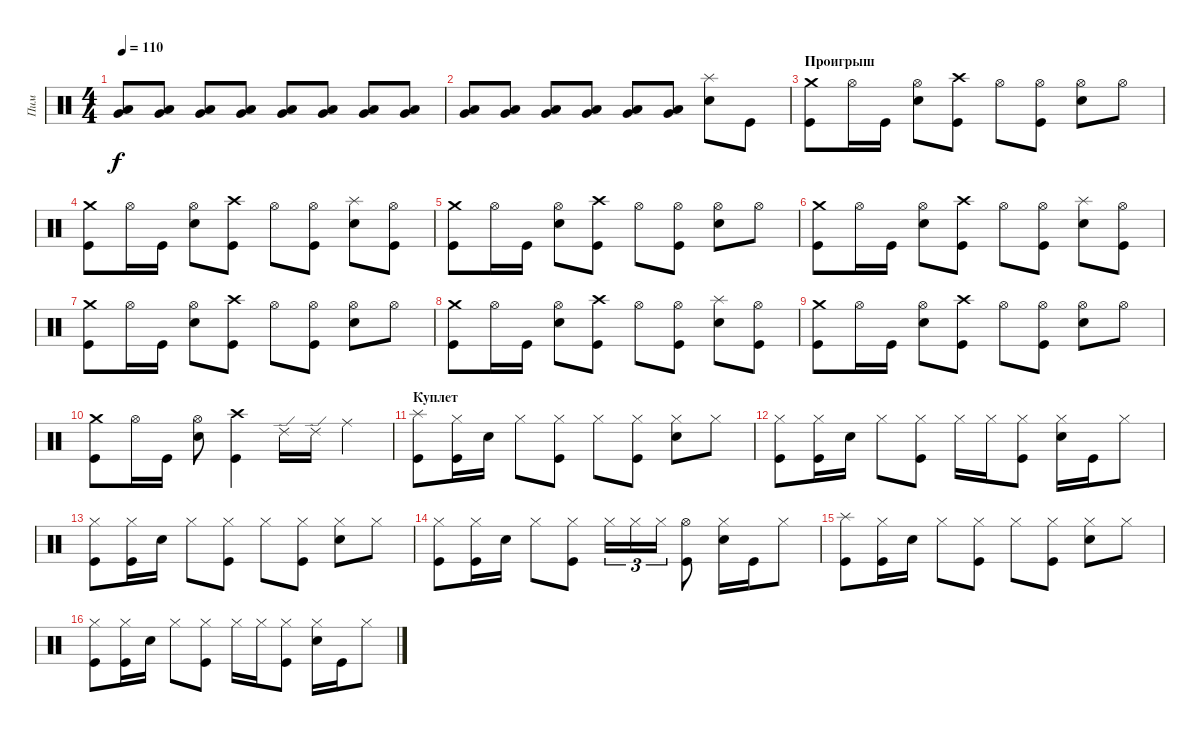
\track ("Пим" "Пим") {instrument percussion}
\staff {score}
\articulation defaults
\ts (4 4)
\tempo 110
\clef neutral
\ks c
("Very Low Tom (hit)" "Low Floor Tom (hit)").8{dy f} ("Very Low Tom (hit)" "Low Floor Tom (hit)").8 ("Very Low Tom (hit)" "Low Floor Tom (hit)").8 ("Very Low Tom (hit)" "Low Floor Tom (hit)").8 ("Very Low Tom (hit)" "Low Floor Tom (hit)").8 ("Very Low Tom (hit)" "Low Floor Tom (hit)").8 ("Very Low Tom (hit)" "Low Floor Tom (hit)").8 ("Very Low Tom (hit)" "Low Floor Tom (hit)").8 |
("Very Low Tom (hit)" "Low Floor Tom (hit)").8 ("Very Low Tom (hit)" "Low Floor Tom (hit)").8 ("Very Low Tom (hit)" "Low Floor Tom (hit)").8 ("Very Low Tom (hit)" "Low Floor Tom (hit)").8 ("Very Low Tom (hit)" "Low Floor Tom (hit)").8 ("Very Low Tom (hit)" "Low Floor Tom (hit)").8 ("Splash (hit)" "Snare (hit) 2").8 "Kick (hit)".8 |
\section ("" "Проигрыш")
("Crash medium (hit)" "Kick (hit)").8 "Hi-Hat (open)".16 "Kick (hit)".16 ("Hi-Hat (open)" "Snare (hit) 2").8 ("Crash high (hit)" "Kick (hit)").8 "Hi-Hat (open)".8 ("Hi-Hat (open)" "Kick (hit)").8 ("Hi-Hat (open)" "Snare (hit) 2").8 "Hi-Hat (open)".8 |
("Crash medium (hit)" "Kick (hit)").8 "Hi-Hat (open)".16 "Kick (hit)".16 ("Hi-Hat (open)" "Snare (hit) 2").8 ("Crash high (hit)" "Kick (hit)").8 "Hi-Hat (open)".8 ("Hi-Hat (open)" "Kick (hit)").8 ("Splash (hit)" "Snare (hit) 2").8 ("Hi-Hat (open)" "Kick (hit)").8 |
("Crash medium (hit)" "Kick (hit)").8 "Hi-Hat (open)".16 "Kick (hit)".16 ("Hi-Hat (open)" "Snare (hit) 2").8 ("Crash high (hit)" "Kick (hit)").8 "Hi-Hat (open)".8 ("Hi-Hat (open)" "Kick (hit)").8 ("Hi-Hat (open)" "Snare (hit) 2").8 "Hi-Hat (open)".8 |
("Crash medium (hit)" "Kick (hit)").8 "Hi-Hat (open)".16 "Kick (hit)".16 ("Hi-Hat (open)" "Snare (hit) 2").8 ("Crash high (hit)" "Kick (hit)").8 "Hi-Hat (open)".8 ("Hi-Hat (open)" "Kick (hit)").8 ("Splash (hit)" "Snare (hit) 2").8 ("Hi-Hat (open)" "Kick (hit)").8 |
("Crash medium (hit)" "Kick (hit)").8 "Hi-Hat (open)".16 "Kick (hit)".16 ("Hi-Hat (open)" "Snare (hit) 2").8 ("Crash high (hit)" "Kick (hit)").8 "Hi-Hat (open)".8 ("Hi-Hat (open)" "Kick (hit)").8 ("Hi-Hat (open)" "Snare (hit) 2").8 "Hi-Hat (open)".8 |
("Crash medium (hit)" "Kick (hit)").8 "Hi-Hat (open)".16 "Kick (hit)".16 ("Hi-Hat (open)" "Snare (hit) 2").8 ("Crash high (hit)" "Kick (hit)").8 "Hi-Hat (open)".8 ("Hi-Hat (open)" "Kick (hit)").8 ("Splash (hit)" "Snare (hit) 2").8 ("Hi-Hat (open)" "Kick (hit)").8 |
("Crash medium (hit)" "Kick (hit)").8 "Hi-Hat (open)".16 "Kick (hit)".16 ("Hi-Hat (open)" "Snare (hit) 2").8 ("Crash high (hit)" "Kick (hit)").8 "Hi-Hat (open)".8 ("Hi-Hat (open)" "Kick (hit)").8 ("Hi-Hat (open)" "Snare (hit) 2").8 "Hi-Hat (open)".8 |
("Crash medium (hit)" "Kick (hit)").8 "Hi-Hat (open)".16 "Kick (hit)".16 ("Hi-Hat (open)" "Snare (hit) 2").8 ("Crash high (hit)" "Kick (hit)").4 "Ride (edge) 2".16 "Ride (edge) 2".16 "Ride (middle)".4 |
\section ("" "Куплет")
("Splash (hit)" "Kick (hit)").8 ("Hi-Hat (closed)" "Kick (hit)").16 "Snare (hit) 2".16 "Hi-Hat (closed)".8 ("Hi-Hat (closed)" "Kick (hit)").8 "Hi-Hat (closed)".8 ("Hi-Hat (closed)" "Kick (hit)").8 ("Hi-Hat (closed)" "Snare (hit) 2").8 "Hi-Hat (closed)".8 |
("Hi-Hat (closed)" "Kick (hit)").8 ("Hi-Hat (closed)" "Kick (hit)").16 "Snare (hit) 2".16 "Hi-Hat (closed)".8 ("Hi-Hat (closed)" "Kick (hit)").8 "Hi-Hat (closed)".16 "Hi-Hat (closed)".16 ("Hi-Hat (closed)" "Kick (hit)").8 ("Hi-Hat (closed)" "Snare (hit) 2").16 "Kick (hit)".16 "Hi-Hat (closed)".8 |
("Hi-Hat (closed)" "Kick (hit)").8 ("Hi-Hat (closed)" "Kick (hit)").16 "Snare (hit) 2".16 "Hi-Hat (closed)".8 ("Hi-Hat (closed)" "Kick (hit)").8 "Hi-Hat (closed)".8 ("Hi-Hat (closed)" "Kick (hit)").8 ("Hi-Hat (closed)" "Snare (hit) 2").8 "Hi-Hat (closed)".8 |
("Hi-Hat (closed)" "Kick (hit)").8 ("Hi-Hat (closed)" "Kick (hit)").16 "Snare (hit) 2".16 "Hi-Hat (closed)".8 ("Hi-Hat (closed)" "Kick (hit)").8 "Hi-Hat (closed)".16{tu (3 2)} "Hi-Hat (closed)".16{tu (3 2)} "Hi-Hat (closed)".16{tu (3 2)} ("Hi-Hat (open)" "Kick (hit)").8 ("Hi-Hat (closed)" "Snare (hit) 2").16 "Kick (hit)".16 "Hi-Hat (closed)".8 |
("Splash (hit)" "Kick (hit)").8 ("Hi-Hat (closed)" "Kick (hit)").16 "Snare (hit) 2".16 "Hi-Hat (closed)".8 ("Hi-Hat (closed)" "Kick (hit)").8 "Hi-Hat (closed)".8 ("Hi-Hat (closed)" "Kick (hit)").8 ("Hi-Hat (closed)" "Snare (hit) 2").8 "Hi-Hat (closed)".8 |
("Hi-Hat (closed)" "Kick (hit)").8 ("Hi-Hat (closed)" "Kick (hit)").16 "Snare (hit) 2".16 "Hi-Hat (closed)".8 ("Hi-Hat (closed)" "Kick (hit)").8 "Hi-Hat (closed)".16 "Hi-Hat (closed)".16 ("Hi-Hat (closed)" "Kick (hit)").8 ("Hi-Hat (closed)" "Snare (hit) 2").16 "Kick (hit)".16 "Hi-Hat (closed)".8
